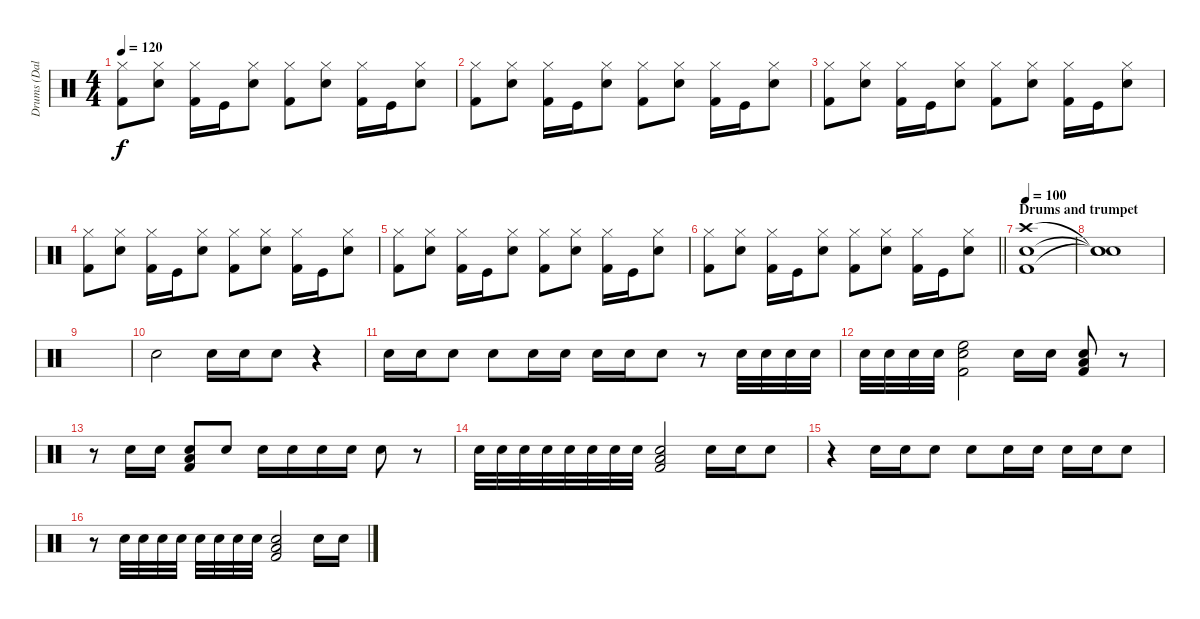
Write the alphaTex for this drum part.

\track ("Drums (Dalton Black)" "Drums (Dal") {instrument percussion}
\staff {score}
\articulation defaults
\ts (4 4)
\tempo 120
\clef neutral
\ks c
("Hi-Hat (closed)" "Kick (hit) 2").8{dy f} ("Hi-Hat (closed)" "Electric Snare (hit)").8 ("Hi-Hat (closed)" "Kick (hit) 2").16 "Kick (hit)".16 ("Hi-Hat (closed)" "Electric Snare (hit)").8 ("Hi-Hat (closed)" "Kick (hit) 2").8 ("Hi-Hat (closed)" "Electric Snare (hit)").8 ("Hi-Hat (closed)" "Kick (hit) 2").16 "Kick (hit)".16 ("Hi-Hat (closed)" "Electric Snare (hit)").8 |
("Hi-Hat (closed)" "Kick (hit) 2").8 ("Hi-Hat (closed)" "Electric Snare (hit)").8 ("Hi-Hat (closed)" "Kick (hit) 2").16 "Kick (hit)".16 ("Hi-Hat (closed)" "Electric Snare (hit)").8 ("Hi-Hat (closed)" "Kick (hit) 2").8 ("Hi-Hat (closed)" "Electric Snare (hit)").8 ("Hi-Hat (closed)" "Kick (hit) 2").16 "Kick (hit)".16 ("Hi-Hat (closed)" "Electric Snare (hit)").8 |
("Hi-Hat (closed)" "Kick (hit) 2").8 ("Hi-Hat (closed)" "Electric Snare (hit)").8 ("Hi-Hat (closed)" "Kick (hit) 2").16 "Kick (hit)".16 ("Hi-Hat (closed)" "Electric Snare (hit)").8 ("Hi-Hat (closed)" "Kick (hit) 2").8 ("Hi-Hat (closed)" "Electric Snare (hit)").8 ("Hi-Hat (closed)" "Kick (hit) 2").16 "Kick (hit)".16 ("Hi-Hat (closed)" "Electric Snare (hit)").8 |
("Hi-Hat (closed)" "Kick (hit) 2").8 ("Hi-Hat (closed)" "Electric Snare (hit)").8 ("Hi-Hat (closed)" "Kick (hit) 2").16 "Kick (hit)".16 ("Hi-Hat (closed)" "Electric Snare (hit)").8 ("Hi-Hat (closed)" "Kick (hit) 2").8 ("Hi-Hat (closed)" "Electric Snare (hit)").8 ("Hi-Hat (closed)" "Kick (hit) 2").16 "Kick (hit)".16 ("Hi-Hat (closed)" "Electric Snare (hit)").8 |
("Hi-Hat (closed)" "Kick (hit) 2").8 ("Hi-Hat (closed)" "Electric Snare (hit)").8 ("Hi-Hat (closed)" "Kick (hit) 2").16 "Kick (hit)".16 ("Hi-Hat (closed)" "Electric Snare (hit)").8 ("Hi-Hat (closed)" "Kick (hit) 2").8 ("Hi-Hat (closed)" "Electric Snare (hit)").8 ("Hi-Hat (closed)" "Kick (hit) 2").16 "Kick (hit)".16 ("Hi-Hat (closed)" "Electric Snare (hit)").8 |
\barLineRight lightlight
("Hi-Hat (closed)" "Kick (hit) 2").8 ("Hi-Hat (closed)" "Electric Snare (hit)").8 ("Hi-Hat (closed)" "Kick (hit) 2").16 "Kick (hit)".16 ("Hi-Hat (closed)" "Electric Snare (hit)").8 ("Hi-Hat (closed)" "Kick (hit) 2").8 ("Hi-Hat (closed)" "Electric Snare (hit)").8 ("Hi-Hat (closed)" "Kick (hit) 2").16 "Kick (hit)".16 ("Hi-Hat (closed)" "Electric Snare (hit)").8 |
\section ("" "Drums and trumpet")
\tempo 100
("Crash high (hit)" "Electric Snare (hit)" "Kick (hit) 2").1 |
("Snare (hit)"{t} "Snare (hit)"{t} "Snare (hit)"{t}).1 |
|
"Electric Snare (hit)".2 "Electric Snare (hit)".16 "Electric Snare (hit)".16 "Electric Snare (hit)".8 r.4 |
"Electric Snare (hit)".16 "Electric Snare (hit)".16 "Electric Snare (hit)".8 "Electric Snare (hit)".8 "Electric Snare (hit)".16 "Electric Snare (hit)".16 "Electric Snare (hit)".16 "Electric Snare (hit)".16 "Electric Snare (hit)".8 r.8 "Electric Snare (hit)".32 "Electric Snare (hit)".32 "Electric Snare (hit)".32 "Electric Snare (hit)".32 |
"Electric Snare (hit)".32 "Electric Snare (hit)".32 "Electric Snare (hit)".32 "Electric Snare (hit)".32 ("High Floor Tom (hit)" "Electric Snare (hit)" "Kick (hit) 2").2 "Electric Snare (hit)".16 "Electric Snare (hit)".16 ("Low Tom (hit)" "Electric Snare (hit)" "Kick (hit) 2").8 r.8 |
r.8 "Electric Snare (hit)".16 "Electric Snare (hit)".16 ("Low Tom (hit)" "Electric Snare (hit)" "Kick (hit) 2").8 "Electric Snare (hit)".8 "Electric Snare (hit)".16 "Electric Snare (hit)".16 "Electric Snare (hit)".16 "Electric Snare (hit)".16 "Electric Snare (hit)".8 r.8 |
"Electric Snare (hit)".32 "Electric Snare (hit)".32 "Electric Snare (hit)".32 "Electric Snare (hit)".32 "Electric Snare (hit)".32 "Electric Snare (hit)".32 "Electric Snare (hit)".32 "Electric Snare (hit)".32 ("Low Tom (hit)" "Electric Snare (hit)" "Kick (hit) 2").2 "Electric Snare (hit)".16 "Electric Snare (hit)".16 "Electric Snare (hit)".8 |
r.4 "Electric Snare (hit)".16 "Electric Snare (hit)".16 "Electric Snare (hit)".8 "Electric Snare (hit)".8 "Electric Snare (hit)".16 "Electric Snare (hit)".16 "Electric Snare (hit)".16 "Electric Snare (hit)".16 "Electric Snare (hit)".8 |
r.8 "Electric Snare (hit)".32 "Electric Snare (hit)".32 "Electric Snare (hit)".32 "Electric Snare (hit)".32 "Electric Snare (hit)".32 "Electric Snare (hit)".32 "Electric Snare (hit)".32 "Electric Snare (hit)".32 ("Low Tom (hit)" "Electric Snare (hit)" "Kick (hit) 2").2 "Electric Snare (hit)".16 "Electric Snare (hit)".16
